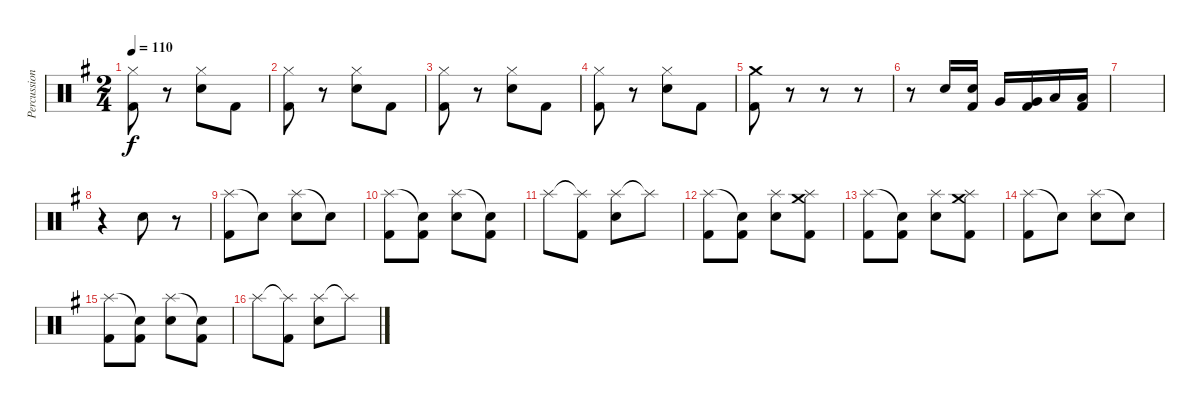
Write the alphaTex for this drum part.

\track ("Percussion" "Percussion") {instrument percussion}
\staff {score}
\articulation defaults
\ts (2 4)
\tempo 110
\clef neutral
\ks g
("Hi-Hat (closed)" "Kick (hit) 2").8{dy f} r.8 ("Hi-Hat (closed)" "Electric Snare (hit)").8 "Kick (hit) 2".8 |
("Hi-Hat (closed)" "Kick (hit) 2").8 r.8 ("Hi-Hat (closed)" "Electric Snare (hit)").8 "Kick (hit) 2".8 |
("Hi-Hat (closed)" "Kick (hit) 2").8 r.8 ("Hi-Hat (closed)" "Electric Snare (hit)").8 "Kick (hit) 2".8 |
("Hi-Hat (closed)" "Kick (hit) 2").8 r.8 ("Hi-Hat (closed)" "Electric Snare (hit)").8 "Kick (hit) 2".8 |
("Crash medium (hit)" "Kick (hit) 2").8 r.8 r.8 r.8 |
r.8 "Electric Snare (hit)".16 ("Electric Snare (hit)" "Kick (hit) 2").16 "Very Low Tom (hit)".16 ("Very Low Tom (hit)" "Kick (hit) 2").16 "Low Floor Tom (hit)".16 ("Low Floor Tom (hit)" "Kick (hit) 2").16 |
|
r.4 "Electric Snare (hit)".8 r.8 |
("Splash (hit)" "Kick (hit) 2").8 "Snare (hit)"{t}.8 ("Splash (hit)" "Electric Snare (hit)").8 "Snare (hit)"{t}.8 |
("Splash (hit)" "Kick (hit) 2").8 ("Snare (hit)"{t} "Kick (hit) 2").8 ("Splash (hit)" "Electric Snare (hit)").8 ("Snare (hit)"{t} "Kick (hit) 2").8 |
"Splash (hit)".8 ("Splash (hit)"{t} "Kick (hit) 2").8 ("Splash (hit)" "Electric Snare (hit)").8 "Splash (hit)"{t}.8 |
("Splash (hit)" "Kick (hit) 2").8 ("Snare (hit)"{t} "Kick (hit) 2").8 ("Splash (hit)" "Electric Snare (hit)").8 ("Crash medium (hit)" "Splash (hit)" "Kick (hit) 2").8 |
("Splash (hit)" "Kick (hit) 2").8 ("Snare (hit)"{t} "Kick (hit) 2").8 ("Splash (hit)" "Electric Snare (hit)").8 ("Crash medium (hit)" "Splash (hit)" "Kick (hit) 2").8 |
("Splash (hit)" "Kick (hit) 2").8 "Snare (hit)"{t}.8 ("Splash (hit)" "Electric Snare (hit)").8 "Snare (hit)"{t}.8 |
("Splash (hit)" "Kick (hit) 2").8 ("Snare (hit)"{t} "Kick (hit) 2").8 ("Splash (hit)" "Electric Snare (hit)").8 ("Snare (hit)"{t} "Kick (hit) 2").8 |
"Splash (hit)".8 ("Splash (hit)"{t} "Kick (hit) 2").8 ("Splash (hit)" "Electric Snare (hit)").8 "Splash (hit)"{t}.8
